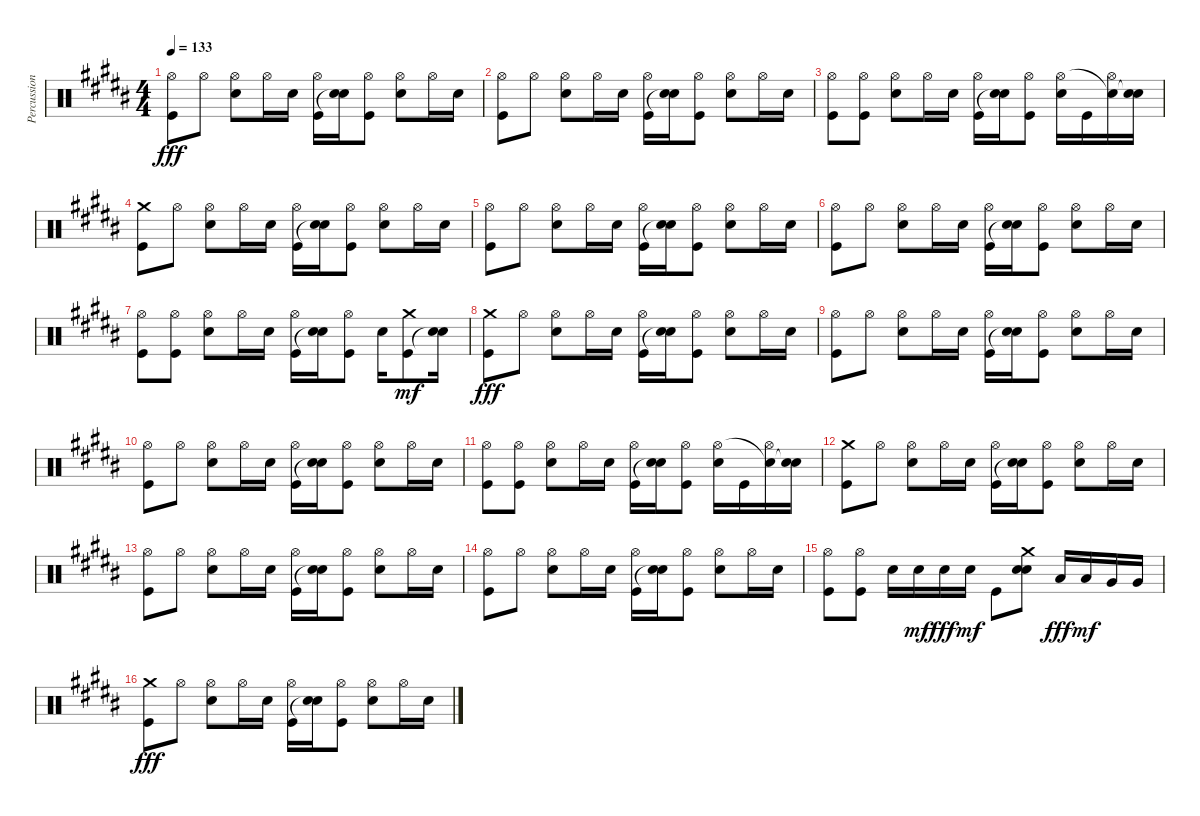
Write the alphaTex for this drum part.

\track ("Percussion" "Percussion") {instrument percussion}
\staff {score}
\articulation defaults
\ts (4 4)
\tempo 133
\clef neutral
\ks b
("Hi-Hat (open)" "Kick (hit)").8{dy fff} "Hi-Hat (open)".8 ("Hi-Hat (open)" "Electric Snare (hit)").8 "Hi-Hat (open)".16 "Electric Snare (hit)".16 ("Hi-Hat (open)" "Kick (hit)").16 ("Electric Snare (hit)" "Snare (hit)"{t}).16 ("Hi-Hat (open)" "Kick (hit)").8 ("Hi-Hat (open)" "Electric Snare (hit)").8 "Hi-Hat (open)".16 "Electric Snare (hit)".16 |
("Hi-Hat (open)" "Kick (hit)").8 "Hi-Hat (open)".8 ("Hi-Hat (open)" "Electric Snare (hit)").8 "Hi-Hat (open)".16 "Electric Snare (hit)".16 ("Hi-Hat (open)" "Kick (hit)").16 ("Electric Snare (hit)" "Snare (hit)"{t}).16 ("Hi-Hat (open)" "Kick (hit)").8 ("Hi-Hat (open)" "Electric Snare (hit)").8 "Hi-Hat (open)".16 "Electric Snare (hit)".16 |
("Kick (hit)" "Hi-Hat (open)").8 ("Kick (hit)" "Hi-Hat (open)").8 ("Electric Snare (hit)" "Hi-Hat (open)").8 "Hi-Hat (open)".16 "Electric Snare (hit)".16 ("Kick (hit)" "Hi-Hat (open)").16 ("Snare (hit)"{t} "Electric Snare (hit)").16 ("Kick (hit)" "Hi-Hat (open)").8 ("Electric Snare (hit)" "Hi-Hat (open)").16 "Kick (hit)".16 ("Hi-Hat (open)" "Snare (hit)"{t}).16 ("Electric Snare (hit)" "Snare (hit)"{t}).16 |
("Crash medium (hit)" "Kick (hit)").8 "Hi-Hat (open)".8 ("Hi-Hat (open)" "Electric Snare (hit)").8 "Hi-Hat (open)".16 "Electric Snare (hit)".16 ("Hi-Hat (open)" "Kick (hit)").16 ("Electric Snare (hit)" "Snare (hit)"{t}).16 ("Hi-Hat (open)" "Kick (hit)").8 ("Hi-Hat (open)" "Electric Snare (hit)").8 "Hi-Hat (open)".16 "Electric Snare (hit)".16 |
("Hi-Hat (open)" "Kick (hit)").8 "Hi-Hat (open)".8 ("Hi-Hat (open)" "Electric Snare (hit)").8 "Hi-Hat (open)".16 "Electric Snare (hit)".16 ("Hi-Hat (open)" "Kick (hit)").16 ("Electric Snare (hit)" "Snare (hit)"{t}).16 ("Hi-Hat (open)" "Kick (hit)").8 ("Hi-Hat (open)" "Electric Snare (hit)").8 "Hi-Hat (open)".16 "Electric Snare (hit)".16 |
("Hi-Hat (open)" "Kick (hit)").8 "Hi-Hat (open)".8 ("Hi-Hat (open)" "Electric Snare (hit)").8 "Hi-Hat (open)".16 "Electric Snare (hit)".16 ("Hi-Hat (open)" "Kick (hit)").16 ("Electric Snare (hit)" "Snare (hit)"{t}).16 ("Hi-Hat (open)" "Kick (hit)").8 ("Hi-Hat (open)" "Electric Snare (hit)").8 "Hi-Hat (open)".16 "Electric Snare (hit)".16 |
("Kick (hit)" "Hi-Hat (open)").8 ("Kick (hit)" "Hi-Hat (open)").8 ("Electric Snare (hit)" "Hi-Hat (open)").8 "Hi-Hat (open)".16 "Electric Snare (hit)".16 ("Kick (hit)" "Hi-Hat (open)").16 ("Snare (hit)"{t} "Electric Snare (hit)").16 ("Kick (hit)" "Hi-Hat (open)").8 "Electric Snare (hit)".16 ("Crash medium (hit)" "Kick (hit)").8{dy mf} ("Electric Snare (hit)" "Snare (hit)"{t}).16 |
("Crash medium (hit)" "Kick (hit)").8{dy fff} "Hi-Hat (open)".8 ("Hi-Hat (open)" "Electric Snare (hit)").8 "Hi-Hat (open)".16 "Electric Snare (hit)".16 ("Hi-Hat (open)" "Kick (hit)").16 ("Electric Snare (hit)" "Snare (hit)"{t}).16 ("Hi-Hat (open)" "Kick (hit)").8 ("Hi-Hat (open)" "Electric Snare (hit)").8 "Hi-Hat (open)".16 "Electric Snare (hit)".16 |
("Hi-Hat (open)" "Kick (hit)").8 "Hi-Hat (open)".8 ("Hi-Hat (open)" "Electric Snare (hit)").8 "Hi-Hat (open)".16 "Electric Snare (hit)".16 ("Hi-Hat (open)" "Kick (hit)").16 ("Electric Snare (hit)" "Snare (hit)"{t}).16 ("Hi-Hat (open)" "Kick (hit)").8 ("Hi-Hat (open)" "Electric Snare (hit)").8 "Hi-Hat (open)".16 "Electric Snare (hit)".16 |
("Hi-Hat (open)" "Kick (hit)").8 "Hi-Hat (open)".8 ("Hi-Hat (open)" "Electric Snare (hit)").8 "Hi-Hat (open)".16 "Electric Snare (hit)".16 ("Hi-Hat (open)" "Kick (hit)").16 ("Electric Snare (hit)" "Snare (hit)"{t}).16 ("Hi-Hat (open)" "Kick (hit)").8 ("Hi-Hat (open)" "Electric Snare (hit)").8 "Hi-Hat (open)".16 "Electric Snare (hit)".16 |
("Kick (hit)" "Hi-Hat (open)").8 ("Kick (hit)" "Hi-Hat (open)").8 ("Electric Snare (hit)" "Hi-Hat (open)").8 "Hi-Hat (open)".16 "Electric Snare (hit)".16 ("Kick (hit)" "Hi-Hat (open)").16 ("Snare (hit)"{t} "Electric Snare (hit)").16 ("Kick (hit)" "Hi-Hat (open)").8 ("Electric Snare (hit)" "Hi-Hat (open)").16 "Kick (hit)".16 ("Hi-Hat (open)" "Snare (hit)"{t}).16 ("Electric Snare (hit)" "Snare (hit)"{t}).16 |
("Crash medium (hit)" "Kick (hit)").8 "Hi-Hat (open)".8 ("Hi-Hat (open)" "Electric Snare (hit)").8 "Hi-Hat (open)".16 "Electric Snare (hit)".16 ("Hi-Hat (open)" "Kick (hit)").16 ("Electric Snare (hit)" "Snare (hit)"{t}).16 ("Hi-Hat (open)" "Kick (hit)").8 ("Hi-Hat (open)" "Electric Snare (hit)").8 "Hi-Hat (open)".16 "Electric Snare (hit)".16 |
("Hi-Hat (open)" "Kick (hit)").8 "Hi-Hat (open)".8 ("Hi-Hat (open)" "Electric Snare (hit)").8 "Hi-Hat (open)".16 "Electric Snare (hit)".16 ("Hi-Hat (open)" "Kick (hit)").16 ("Electric Snare (hit)" "Snare (hit)"{t}).16 ("Hi-Hat (open)" "Kick (hit)").8 ("Hi-Hat (open)" "Electric Snare (hit)").8 "Hi-Hat (open)".16 "Electric Snare (hit)".16 |
("Hi-Hat (open)" "Kick (hit)").8 "Hi-Hat (open)".8 ("Hi-Hat (open)" "Electric Snare (hit)").8 "Hi-Hat (open)".16 "Electric Snare (hit)".16 ("Hi-Hat (open)" "Kick (hit)").16 ("Electric Snare (hit)" "Snare (hit)"{t}).16 ("Hi-Hat (open)" "Kick (hit)").8 ("Hi-Hat (open)" "Electric Snare (hit)").8 "Hi-Hat (open)".16 "Electric Snare (hit)".16 |
("Kick (hit)" "Hi-Hat (open)").8 ("Kick (hit)" "Hi-Hat (open)").8 "Electric Snare (hit)".16 "Electric Snare (hit)".16{dy mf} "Electric Snare (hit)".16{dy fff} "Electric Snare (hit)".16{dy mf} "Kick (hit)".8 ("Electric Snare (hit)" "Crash medium (hit)" "Snare (hit)").8 "Low Tom (hit)".16{dy fff} "Low Tom (hit)".16{dy mf} "Very Low Tom (hit)".16 "Very Low Tom (hit)".16 |
("Crash medium (hit)" "Kick (hit)").8{dy fff} "Hi-Hat (open)".8 ("Hi-Hat (open)" "Electric Snare (hit)").8 "Hi-Hat (open)".16 "Electric Snare (hit)".16 ("Hi-Hat (open)" "Kick (hit)").16 ("Electric Snare (hit)" "Snare (hit)"{t}).16 ("Hi-Hat (open)" "Kick (hit)").8 ("Hi-Hat (open)" "Electric Snare (hit)").8 "Hi-Hat (open)".16 "Electric Snare (hit)".16
